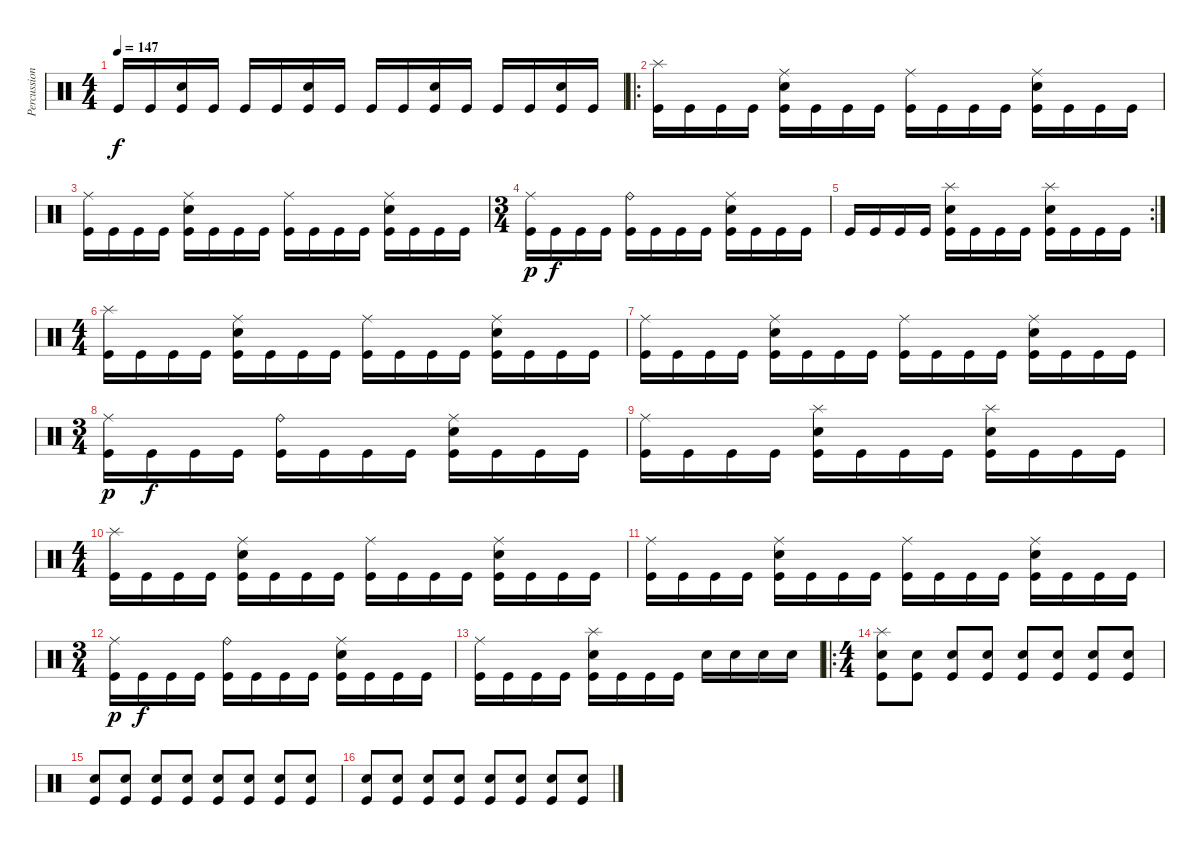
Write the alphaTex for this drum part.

\track ("Percussions" "Percussion") {instrument percussion}
\staff {score}
\articulation defaults
\ts (4 4)
\tempo 147
\clef neutral
\ks c "Kick (hit)".16{dy f} "Kick (hit)".16
("Electric Snare (hit)" "Kick (hit)").16 "Kick (hit)".16 "Kick (hit)".16 "Kick (hit)".16 ("Electric Snare (hit)" "Kick (hit)").16 "Kick (hit)".16 "Kick (hit)".16 "Kick (hit)".16 ("Electric Snare (hit)" "Kick (hit)").16 "Kick (hit)".16 "Kick (hit)".16 "Kick (hit)".16 ("Electric Snare (hit)" "Kick (hit)").16 "Kick (hit)".16 |
\ro
("Splash (hit)" "Kick (hit)").16 "Kick (hit)".16 "Kick (hit)".16 "Kick (hit)".16 ("Ride (middle)" "Electric Snare (hit)" "Kick (hit)").16 "Kick (hit)".16 "Kick (hit)".16 "Kick (hit)".16 ("Ride (middle)" "Kick (hit)").16 "Kick (hit)".16 "Kick (hit)".16 "Kick (hit)".16 ("Ride (middle)" "Electric Snare (hit)" "Kick (hit)").16 "Kick (hit)".16 "Kick (hit)".16 "Kick (hit)".16 |
("Ride (middle)" "Kick (hit)").16 "Kick (hit)".16 "Kick (hit)".16 "Kick (hit)".16 ("Ride (middle)" "Electric Snare (hit)" "Kick (hit)").16 "Kick (hit)".16 "Kick (hit)".16 "Kick (hit)".16 ("Ride (middle)" "Kick (hit)").16 "Kick (hit)".16 "Kick (hit)".16 "Kick (hit)".16 ("Ride (middle)" "Electric Snare (hit)" "Kick (hit)").16 "Kick (hit)".16 "Kick (hit)".16 "Kick (hit)".16 |
\ts (3 4)
("Ride (middle)" "Kick (hit)").16{dy p} "Kick (hit)".16{dy f} "Kick (hit)".16 "Kick (hit)".16 ("Ride (bell)" "Kick (hit)").16 "Kick (hit)".16 "Kick (hit)".16 "Kick (hit)".16 ("Ride (middle)" "Electric Snare (hit)" "Kick (hit)").16 "Kick (hit)".16 "Kick (hit)".16 "Kick (hit)".16 |
\rc 2 "Kick (hit)".16 "Kick (hit)".16 "Kick (hit)".16 "Kick (hit)".16
("Splash (hit)" "Electric Snare (hit)" "Kick (hit)").16 "Kick (hit)".16 "Kick (hit)".16 "Kick (hit)".16 ("Splash (hit)" "Electric Snare (hit)" "Kick (hit)").16 "Kick (hit)".16 "Kick (hit)".16 "Kick (hit)".16 |
\ts (4 4)
("Splash (hit)" "Kick (hit)").16 "Kick (hit)".16 "Kick (hit)".16 "Kick (hit)".16 ("Ride (middle)" "Electric Snare (hit)" "Kick (hit)").16 "Kick (hit)".16 "Kick (hit)".16 "Kick (hit)".16 ("Ride (middle)" "Kick (hit)").16 "Kick (hit)".16 "Kick (hit)".16 "Kick (hit)".16 ("Ride (middle)" "Electric Snare (hit)" "Kick (hit)").16 "Kick (hit)".16 "Kick (hit)".16 "Kick (hit)".16 |
("Ride (middle)" "Kick (hit)").16 "Kick (hit)".16 "Kick (hit)".16 "Kick (hit)".16 ("Ride (middle)" "Electric Snare (hit)" "Kick (hit)").16 "Kick (hit)".16 "Kick (hit)".16 "Kick (hit)".16 ("Ride (middle)" "Kick (hit)").16 "Kick (hit)".16 "Kick (hit)".16 "Kick (hit)".16 ("Ride (middle)" "Electric Snare (hit)" "Kick (hit)").16 "Kick (hit)".16 "Kick (hit)".16 "Kick (hit)".16 |
\ts (3 4)
("Ride (middle)" "Kick (hit)").16{dy p} "Kick (hit)".16{dy f} "Kick (hit)".16 "Kick (hit)".16 ("Ride (bell)" "Kick (hit)").16 "Kick (hit)".16 "Kick (hit)".16 "Kick (hit)".16 ("Ride (middle)" "Electric Snare (hit)" "Kick (hit)").16 "Kick (hit)".16 "Kick (hit)".16 "Kick (hit)".16 |
("Ride (middle)" "Kick (hit)").16 "Kick (hit)".16 "Kick (hit)".16 "Kick (hit)".16 ("Splash (hit)" "Electric Snare (hit)" "Kick (hit)").16 "Kick (hit)".16 "Kick (hit)".16 "Kick (hit)".16 ("Splash (hit)" "Electric Snare (hit)" "Kick (hit)").16 "Kick (hit)".16 "Kick (hit)".16 "Kick (hit)".16 |
\ts (4 4)
("Splash (hit)" "Kick (hit)").16 "Kick (hit)".16 "Kick (hit)".16 "Kick (hit)".16 ("Ride (middle)" "Electric Snare (hit)" "Kick (hit)").16 "Kick (hit)".16 "Kick (hit)".16 "Kick (hit)".16 ("Ride (middle)" "Kick (hit)").16 "Kick (hit)".16 "Kick (hit)".16 "Kick (hit)".16 ("Ride (middle)" "Electric Snare (hit)" "Kick (hit)").16 "Kick (hit)".16 "Kick (hit)".16 "Kick (hit)".16 |
("Ride (middle)" "Kick (hit)").16 "Kick (hit)".16 "Kick (hit)".16 "Kick (hit)".16 ("Ride (middle)" "Electric Snare (hit)" "Kick (hit)").16 "Kick (hit)".16 "Kick (hit)".16 "Kick (hit)".16 ("Ride (middle)" "Kick (hit)").16 "Kick (hit)".16 "Kick (hit)".16 "Kick (hit)".16 ("Ride (middle)" "Electric Snare (hit)" "Kick (hit)").16 "Kick (hit)".16 "Kick (hit)".16 "Kick (hit)".16 |
\ts (3 4)
("Ride (middle)" "Kick (hit)").16{dy p} "Kick (hit)".16{dy f} "Kick (hit)".16 "Kick (hit)".16 ("Ride (bell)" "Kick (hit)").16 "Kick (hit)".16 "Kick (hit)".16 "Kick (hit)".16 ("Ride (middle)" "Electric Snare (hit)" "Kick (hit)").16 "Kick (hit)".16 "Kick (hit)".16 "Kick (hit)".16 |
("Ride (middle)" "Kick (hit)").16 "Kick (hit)".16 "Kick (hit)".16 "Kick (hit)".16 ("Splash (hit)" "Electric Snare (hit)" "Kick (hit)").16 "Kick (hit)".16 "Kick (hit)".16 "Kick (hit)".16 "Electric Snare (hit)".16 "Electric Snare (hit)".16 "Electric Snare (hit)".16 "Electric Snare (hit)".16 |
\ro
\ts (4 4)
("Splash (hit)" "Electric Snare (hit)" "Kick (hit)").8 ("Electric Snare (hit)" "Kick (hit)").8 ("Electric Snare (hit)" "Kick (hit)").8 ("Electric Snare (hit)" "Kick (hit)").8 ("Electric Snare (hit)" "Kick (hit)").8 ("Electric Snare (hit)" "Kick (hit)").8 ("Electric Snare (hit)" "Kick (hit)").8 ("Electric Snare (hit)" "Kick (hit)").8 |
("Electric Snare (hit)" "Kick (hit)").8 ("Electric Snare (hit)" "Kick (hit)").8 ("Electric Snare (hit)" "Kick (hit)").8 ("Electric Snare (hit)" "Kick (hit)").8 ("Electric Snare (hit)" "Kick (hit)").8 ("Electric Snare (hit)" "Kick (hit)").8 ("Electric Snare (hit)" "Kick (hit)").8 ("Electric Snare (hit)" "Kick (hit)").8 |
("Electric Snare (hit)" "Kick (hit)").8 ("Electric Snare (hit)" "Kick (hit)").8 ("Electric Snare (hit)" "Kick (hit)").8 ("Electric Snare (hit)" "Kick (hit)").8 ("Electric Snare (hit)" "Kick (hit)").8 ("Electric Snare (hit)" "Kick (hit)").8 ("Electric Snare (hit)" "Kick (hit)").8 ("Electric Snare (hit)" "Kick (hit)").8
